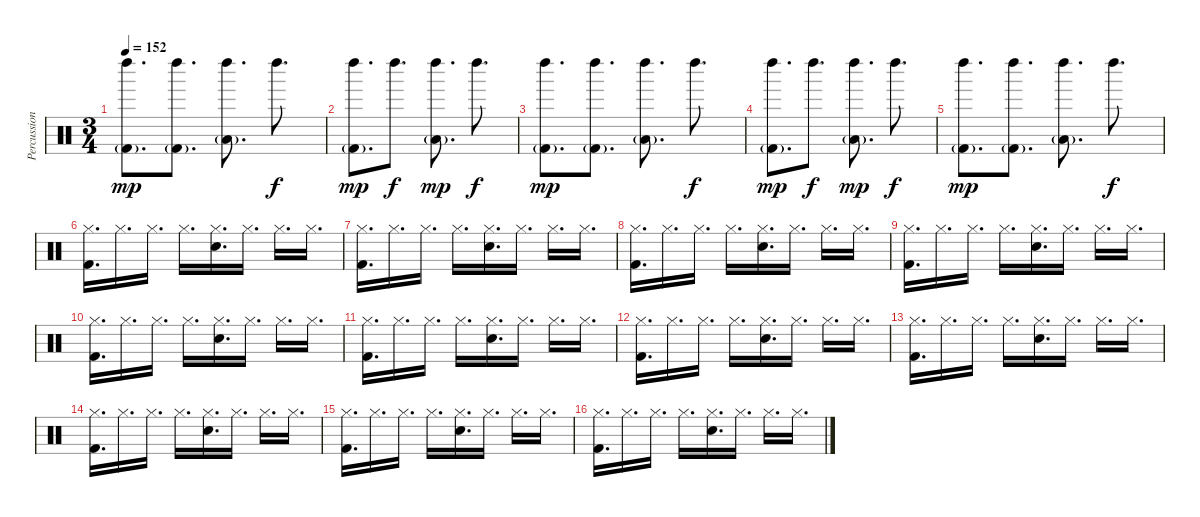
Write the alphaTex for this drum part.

\track ("Percussion" "Percussion") {instrument percussion}
\staff {score}
\articulation defaults
\ts (3 4)
\tempo 152
\clef neutral
\ks c
("Left Maraca (hit)" "Kick (hit) 2"{g}).8{d dy mp} ("Left Maraca (hit)" "Kick (hit) 2"{g}).8{d} ("Left Maraca (hit)" "Low Tom (hit)"{g}).8{d} "Left Maraca (hit)".8{d dy f} |
("Left Maraca (hit)" "Kick (hit) 2"{g}).8{d dy mp} "Left Maraca (hit)".8{d dy f} ("Left Maraca (hit)" "Low Tom (hit)"{g}).8{d dy mp} "Left Maraca (hit)".8{d dy f} |
("Left Maraca (hit)" "Kick (hit) 2"{g}).8{d dy mp} ("Left Maraca (hit)" "Kick (hit) 2"{g}).8{d} ("Left Maraca (hit)" "Low Tom (hit)"{g}).8{d} "Left Maraca (hit)".8{d dy f} |
("Left Maraca (hit)" "Kick (hit) 2"{g}).8{d dy mp} "Left Maraca (hit)".8{d dy f} ("Left Maraca (hit)" "Low Tom (hit)"{g}).8{d dy mp} "Left Maraca (hit)".8{d dy f} |
("Left Maraca (hit)" "Kick (hit) 2"{g}).8{d dy mp} ("Left Maraca (hit)" "Kick (hit) 2"{g}).8{d} ("Left Maraca (hit)" "Low Tom (hit)"{g}).8{d} "Left Maraca (hit)".8{d dy f} |
("Hi-Hat (closed)" "Kick (hit) 2").16{d} "Hi-Hat (closed)".16{d} "Hi-Hat (closed)".16{d} "Hi-Hat (closed)".16{d} ("Hi-Hat (closed)" "Electric Snare (hit)").16{d} "Hi-Hat (closed)".16{d} "Hi-Hat (closed)".16{d} "Hi-Hat (closed)".16{d} |
("Hi-Hat (closed)" "Kick (hit) 2").16{d} "Hi-Hat (closed)".16{d} "Hi-Hat (closed)".16{d} "Hi-Hat (closed)".16{d} ("Hi-Hat (closed)" "Electric Snare (hit)").16{d} "Hi-Hat (closed)".16{d} "Hi-Hat (closed)".16{d} "Hi-Hat (closed)".16{d} |
("Hi-Hat (closed)" "Kick (hit) 2").16{d} "Hi-Hat (closed)".16{d} "Hi-Hat (closed)".16{d} "Hi-Hat (closed)".16{d} ("Hi-Hat (closed)" "Electric Snare (hit)").16{d} "Hi-Hat (closed)".16{d} "Hi-Hat (closed)".16{d} "Hi-Hat (closed)".16{d} |
("Hi-Hat (closed)" "Kick (hit) 2").16{d} "Hi-Hat (closed)".16{d} "Hi-Hat (closed)".16{d} "Hi-Hat (closed)".16{d} ("Hi-Hat (closed)" "Electric Snare (hit)").16{d} "Hi-Hat (closed)".16{d} "Hi-Hat (closed)".16{d} "Hi-Hat (closed)".16{d} |
("Hi-Hat (closed)" "Kick (hit) 2").16{d} "Hi-Hat (closed)".16{d} "Hi-Hat (closed)".16{d} "Hi-Hat (closed)".16{d} ("Hi-Hat (closed)" "Electric Snare (hit)").16{d} "Hi-Hat (closed)".16{d} "Hi-Hat (closed)".16{d} "Hi-Hat (closed)".16{d} |
("Hi-Hat (closed)" "Kick (hit) 2").16{d} "Hi-Hat (closed)".16{d} "Hi-Hat (closed)".16{d} "Hi-Hat (closed)".16{d} ("Hi-Hat (closed)" "Electric Snare (hit)").16{d} "Hi-Hat (closed)".16{d} "Hi-Hat (closed)".16{d} "Hi-Hat (closed)".16{d} |
("Hi-Hat (closed)" "Kick (hit) 2").16{d} "Hi-Hat (closed)".16{d} "Hi-Hat (closed)".16{d} "Hi-Hat (closed)".16{d} ("Hi-Hat (closed)" "Electric Snare (hit)").16{d} "Hi-Hat (closed)".16{d} "Hi-Hat (closed)".16{d} "Hi-Hat (closed)".16{d} |
("Hi-Hat (closed)" "Kick (hit) 2").16{d} "Hi-Hat (closed)".16{d} "Hi-Hat (closed)".16{d} "Hi-Hat (closed)".16{d} ("Hi-Hat (closed)" "Electric Snare (hit)").16{d} "Hi-Hat (closed)".16{d} "Hi-Hat (closed)".16{d} "Hi-Hat (closed)".16{d} |
("Hi-Hat (closed)" "Kick (hit) 2").16{d} "Hi-Hat (closed)".16{d} "Hi-Hat (closed)".16{d} "Hi-Hat (closed)".16{d} ("Hi-Hat (closed)" "Electric Snare (hit)").16{d} "Hi-Hat (closed)".16{d} "Hi-Hat (closed)".16{d} "Hi-Hat (closed)".16{d} |
("Hi-Hat (closed)" "Kick (hit) 2").16{d} "Hi-Hat (closed)".16{d} "Hi-Hat (closed)".16{d} "Hi-Hat (closed)".16{d} ("Hi-Hat (closed)" "Electric Snare (hit)").16{d} "Hi-Hat (closed)".16{d} "Hi-Hat (closed)".16{d} "Hi-Hat (closed)".16{d} |
("Hi-Hat (closed)" "Kick (hit) 2").16{d} "Hi-Hat (closed)".16{d} "Hi-Hat (closed)".16{d} "Hi-Hat (closed)".16{d} ("Hi-Hat (closed)" "Electric Snare (hit)").16{d} "Hi-Hat (closed)".16{d} "Hi-Hat (closed)".16{d} "Hi-Hat (closed)".16{d}
